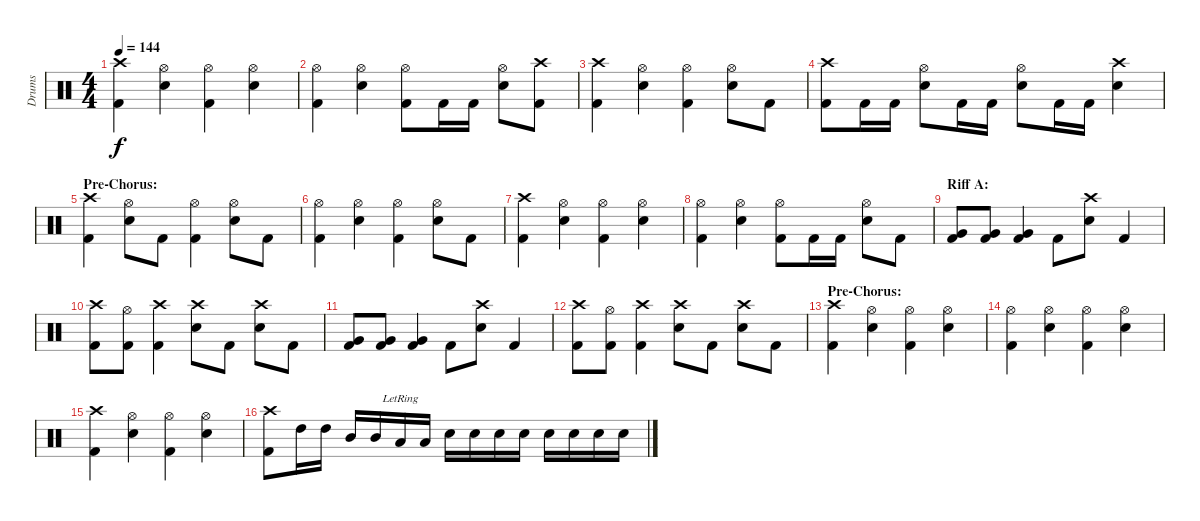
\track ("Drums" "Drums") {instrument percussion}
\staff {score}
\articulation defaults
\ts (4 4)
\tempo 144
\clef neutral
\ks c
("Crash high (hit)" "Kick (hit) 2").4{dy f} ("Hi-Hat (open)" "Snare (hit) 2").4 ("Hi-Hat (open)" "Kick (hit) 2").4 ("Hi-Hat (open)" "Snare (hit) 2").4 |
("Hi-Hat (open)" "Kick (hit) 2").4 ("Hi-Hat (open)" "Snare (hit) 2").4 ("Hi-Hat (open)" "Kick (hit) 2").8 "Kick (hit) 2".16 "Kick (hit) 2".16 ("Hi-Hat (open)" "Snare (hit) 2").8 ("Crash high (hit)" "Kick (hit) 2").8 |
("Crash high (hit)" "Kick (hit) 2").4 ("Hi-Hat (open)" "Snare (hit) 2").4 ("Hi-Hat (open)" "Kick (hit) 2").4 ("Hi-Hat (open)" "Snare (hit) 2").8 "Kick (hit) 2".8 |
("Crash high (hit)" "Kick (hit) 2").8 "Kick (hit) 2".16 "Kick (hit) 2".16 ("Hi-Hat (open)" "Snare (hit) 2").8 "Kick (hit) 2".16 "Kick (hit) 2".16 ("Hi-Hat (open)" "Snare (hit) 2").8 "Kick (hit) 2".16 "Kick (hit) 2".16 ("Crash high (hit)" "Snare (hit) 2").4 |
\section ("" "Pre-Chorus:")
("Crash high (hit)" "Kick (hit) 2").4 ("Hi-Hat (open)" "Snare (hit) 2").8 "Kick (hit) 2".8 ("Hi-Hat (open)" "Kick (hit) 2").4 ("Hi-Hat (open)" "Snare (hit) 2").8 "Kick (hit) 2".8 |
("Hi-Hat (open)" "Kick (hit) 2").4 ("Hi-Hat (open)" "Snare (hit) 2").4 ("Hi-Hat (open)" "Kick (hit) 2").4 ("Hi-Hat (open)" "Snare (hit) 2").8 "Kick (hit) 2".8 |
("Crash high (hit)" "Kick (hit) 2").4 ("Hi-Hat (open)" "Snare (hit) 2").4 ("Hi-Hat (open)" "Kick (hit) 2").4 ("Hi-Hat (open)" "Snare (hit) 2").4 |
("Hi-Hat (open)" "Kick (hit) 2").4 ("Hi-Hat (open)" "Snare (hit) 2").4 ("Hi-Hat (open)" "Kick (hit) 2").8 "Kick (hit) 2".16 "Kick (hit) 2".16 ("Hi-Hat (open)" "Snare (hit) 2").8 "Kick (hit) 2".8 |
\section ("" "Riff A:")
("Very Low Tom (hit)" "Kick (hit) 2").8 ("Very Low Tom (hit)" "Kick (hit) 2").8 ("Very Low Tom (hit)" "Kick (hit) 2").4 "Kick (hit) 2".8 ("Crash high (hit)" "Snare (hit) 2").8 "Kick (hit) 2".4 |
("Crash high (hit)" "Kick (hit) 2").8 ("Hi-Hat (open)" "Kick (hit) 2").8 ("Crash high (hit)" "Kick (hit) 2").4 ("Crash high (hit)" "Snare (hit) 2").8 "Kick (hit) 2".8 ("Crash high (hit)" "Snare (hit) 2").8 "Kick (hit) 2".8 |
("Very Low Tom (hit)" "Kick (hit) 2").8 ("Very Low Tom (hit)" "Kick (hit) 2").8 ("Very Low Tom (hit)" "Kick (hit) 2").4 "Kick (hit) 2".8 ("Crash high (hit)" "Snare (hit) 2").8 "Kick (hit) 2".4 |
("Crash high (hit)" "Kick (hit) 2").8 ("Hi-Hat (open)" "Kick (hit) 2").8 ("Crash high (hit)" "Kick (hit) 2").4 ("Crash high (hit)" "Snare (hit) 2").8 "Kick (hit) 2".8 ("Crash high (hit)" "Snare (hit) 2").8 "Kick (hit) 2".8 |
\section ("" "Pre-Chorus:")
("Crash high (hit)" "Kick (hit) 2").4 ("Hi-Hat (open)" "Snare (hit) 2").4 ("Hi-Hat (open)" "Kick (hit) 2").4 ("Hi-Hat (open)" "Snare (hit) 2").4 |
("Hi-Hat (open)" "Kick (hit) 2").4 ("Hi-Hat (open)" "Snare (hit) 2").4 ("Hi-Hat (open)" "Kick (hit) 2").4 ("Hi-Hat (open)" "Snare (hit) 2").4 |
("Crash high (hit)" "Kick (hit) 2").4 ("Hi-Hat (open)" "Snare (hit) 2").4 ("Hi-Hat (open)" "Kick (hit) 2").4 ("Hi-Hat (open)" "Snare (hit) 2").4 |
("Crash high (hit)" "Kick (hit) 2").8 "High Tom (hit)".16 "High Tom (hit)".16 "Mid Tom (hit)".16 "Mid Tom (hit)".16 "Low Tom (hit)"{lr}.16 "Low Tom (hit)".16 "Snare (hit) 2".16 "Snare (hit) 2".16 "Snare (hit) 2".16 "Snare (hit) 2".16 "Snare (hit) 2".16 "Snare (hit) 2".16 "Snare (hit) 2".16 "Snare (hit) 2".16
